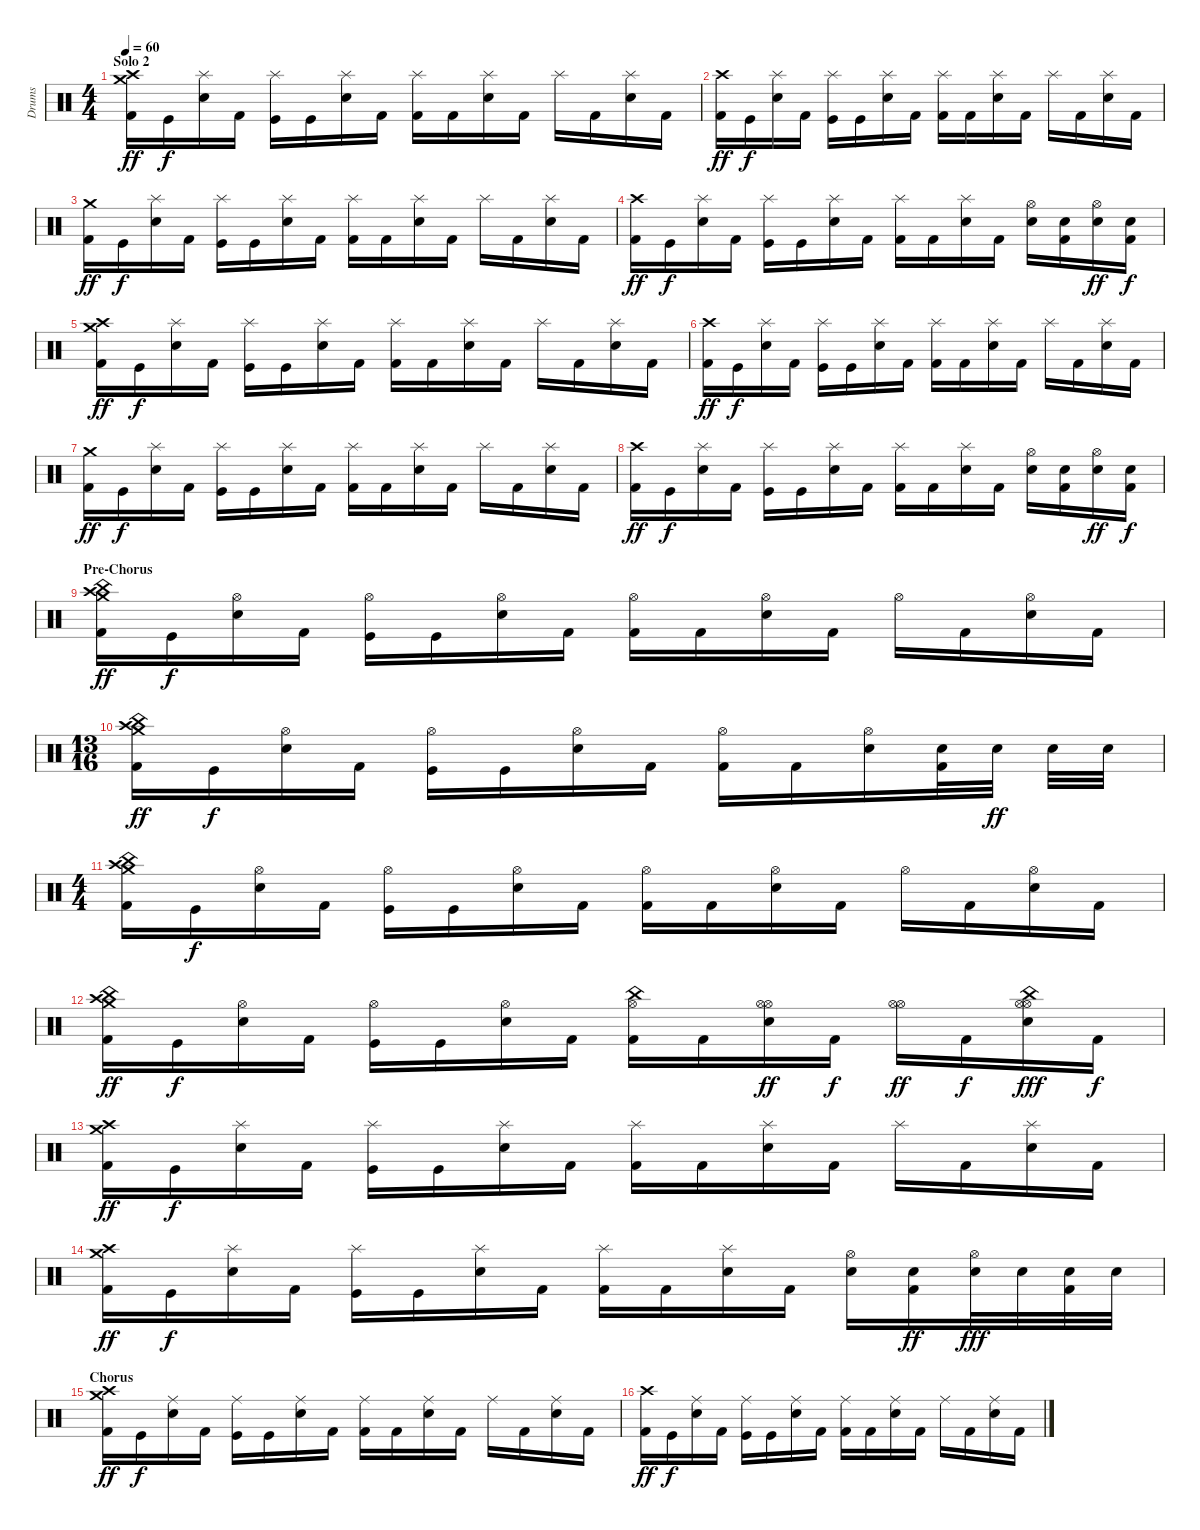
\track ("Drums" "Drums") {instrument percussion}
\staff {score}
\articulation defaults
\ts (4 4)
\section ("" "Solo 2")
\tempo 60
\clef neutral
\ks c
("Crash medium (hit)" "Crash high (hit)" "Kick (hit) 2").16{dy ff volume 16} "Kick (hit)".16{dy f} ("Splash (hit)" "Snare (hit) 2").16 "Kick (hit) 2".16 ("Splash (hit)" "Kick (hit)").16 "Kick (hit)".16 ("Splash (hit)" "Snare (hit) 2").16 "Kick (hit) 2".16 ("Splash (hit)" "Kick (hit) 2").16 "Kick (hit) 2".16 ("Splash (hit)" "Snare (hit) 2").16 "Kick (hit) 2".16 "Splash (hit)".16 "Kick (hit) 2".16 ("Splash (hit)" "Snare (hit) 2").16 "Kick (hit) 2".16 |
("Crash high (hit)" "Kick (hit) 2").16{dy ff} "Kick (hit)".16{dy f} ("Splash (hit)" "Snare (hit) 2").16 "Kick (hit) 2".16 ("Splash (hit)" "Kick (hit)").16 "Kick (hit)".16 ("Splash (hit)" "Snare (hit) 2").16 "Kick (hit) 2".16 ("Splash (hit)" "Kick (hit) 2").16 "Kick (hit) 2".16 ("Splash (hit)" "Snare (hit) 2").16 "Kick (hit) 2".16 "Splash (hit)".16 "Kick (hit) 2".16 ("Splash (hit)" "Snare (hit) 2").16 "Kick (hit) 2".16 |
("Crash medium (hit)" "Kick (hit) 2").16{dy ff} "Kick (hit)".16{dy f} ("Splash (hit)" "Snare (hit) 2").16 "Kick (hit) 2".16 ("Splash (hit)" "Kick (hit)").16 "Kick (hit)".16 ("Splash (hit)" "Snare (hit) 2").16 "Kick (hit) 2".16 ("Splash (hit)" "Kick (hit) 2").16 "Kick (hit) 2".16 ("Splash (hit)" "Snare (hit) 2").16 "Kick (hit) 2".16 "Splash (hit)".16 "Kick (hit) 2".16 ("Splash (hit)" "Snare (hit) 2").16 "Kick (hit) 2".16 |
("Crash high (hit)" "Kick (hit) 2").16{dy ff} "Kick (hit)".16{dy f} ("Splash (hit)" "Snare (hit) 2").16 "Kick (hit) 2".16 ("Splash (hit)" "Kick (hit)").16 "Kick (hit)".16 ("Splash (hit)" "Snare (hit) 2").16 "Kick (hit) 2".16 ("Splash (hit)" "Kick (hit) 2").16 "Kick (hit) 2".16 ("Splash (hit)" "Snare (hit) 2").16 "Kick (hit) 2".16 ("Hi-Hat (open)" "Snare (hit) 2").16 ("Snare (hit) 2" "Kick (hit) 2").16 ("Hi-Hat (open)" "Snare (hit) 2").16{dy ff} ("Snare (hit) 2" "Kick (hit) 2").16{dy f} |
("Crash medium (hit)" "Crash high (hit)" "Kick (hit) 2").16{dy ff} "Kick (hit)".16{dy f} ("Splash (hit)" "Snare (hit) 2").16 "Kick (hit) 2".16 ("Splash (hit)" "Kick (hit)").16 "Kick (hit)".16 ("Splash (hit)" "Snare (hit) 2").16 "Kick (hit) 2".16 ("Splash (hit)" "Kick (hit) 2").16 "Kick (hit) 2".16 ("Splash (hit)" "Snare (hit) 2").16 "Kick (hit) 2".16 "Splash (hit)".16 "Kick (hit) 2".16 ("Splash (hit)" "Snare (hit) 2").16 "Kick (hit) 2".16 |
("Crash high (hit)" "Kick (hit) 2").16{dy ff} "Kick (hit)".16{dy f} ("Splash (hit)" "Snare (hit) 2").16 "Kick (hit) 2".16 ("Splash (hit)" "Kick (hit)").16 "Kick (hit)".16 ("Splash (hit)" "Snare (hit) 2").16 "Kick (hit) 2".16 ("Splash (hit)" "Kick (hit) 2").16 "Kick (hit) 2".16 ("Splash (hit)" "Snare (hit) 2").16 "Kick (hit) 2".16 "Splash (hit)".16 "Kick (hit) 2".16 ("Splash (hit)" "Snare (hit) 2").16 "Kick (hit) 2".16 |
("Crash medium (hit)" "Kick (hit) 2").16{dy ff} "Kick (hit)".16{dy f} ("Splash (hit)" "Snare (hit) 2").16 "Kick (hit) 2".16 ("Splash (hit)" "Kick (hit)").16 "Kick (hit)".16 ("Splash (hit)" "Snare (hit) 2").16 "Kick (hit) 2".16 ("Splash (hit)" "Kick (hit) 2").16 "Kick (hit) 2".16 ("Splash (hit)" "Snare (hit) 2").16 "Kick (hit) 2".16 "Splash (hit)".16 "Kick (hit) 2".16 ("Splash (hit)" "Snare (hit) 2").16 "Kick (hit) 2".16 |
("Crash high (hit)" "Kick (hit) 2").16{dy ff} "Kick (hit)".16{dy f} ("Splash (hit)" "Snare (hit) 2").16 "Kick (hit) 2".16 ("Splash (hit)" "Kick (hit)").16 "Kick (hit)".16 ("Splash (hit)" "Snare (hit) 2").16 "Kick (hit) 2".16 ("Splash (hit)" "Kick (hit) 2").16 "Kick (hit) 2".16 ("Splash (hit)" "Snare (hit) 2").16 "Kick (hit) 2".16 ("Hi-Hat (open)" "Snare (hit) 2").16 ("Snare (hit) 2" "Kick (hit) 2").16 ("Hi-Hat (open)" "Snare (hit) 2").16{dy ff} ("Snare (hit) 2" "Kick (hit) 2").16{dy f} |
\section ("" "Pre-Chorus")
("Crash medium (hit)" "Crash high (hit)" "China (hit)" "Kick (hit) 2").16{dy ff} "Kick (hit)".16{dy f} ("Hi-Hat (open)" "Snare (hit) 2").16 "Kick (hit) 2".16 ("Hi-Hat (open)" "Kick (hit)").16 "Kick (hit)".16 ("Hi-Hat (open)" "Snare (hit) 2").16 "Kick (hit) 2".16 ("Hi-Hat (open)" "Kick (hit) 2").16 "Kick (hit) 2".16 ("Hi-Hat (open)" "Snare (hit) 2").16 "Kick (hit) 2".16 "Hi-Hat (open)".16 "Kick (hit) 2".16 ("Hi-Hat (open)" "Snare (hit) 2").16 "Kick (hit) 2".16 |
\ts (13 16)
("Crash medium (hit)" "Crash high (hit)" "China (hit)" "Kick (hit) 2").16{dy ff} "Kick (hit)".16{dy f} ("Hi-Hat (open)" "Snare (hit) 2").16 "Kick (hit) 2".16 ("Hi-Hat (open)" "Kick (hit)").16 "Kick (hit)".16 ("Hi-Hat (open)" "Snare (hit) 2").16 "Kick (hit) 2".16 ("Hi-Hat (open)" "Kick (hit) 2").16 "Kick (hit) 2".16 ("Hi-Hat (open)" "Snare (hit) 2").16 ("Snare (hit) 2" "Kick (hit) 2").32 "Snare (hit) 2".32{dy ff} "Snare (hit) 2".32 "Snare (hit) 2".32 |
\ts (4 4)
("Crash medium (hit)" "Crash high (hit)" "China (hit)" "Kick (hit) 2").16 "Kick (hit)".16{dy f} ("Hi-Hat (open)" "Snare (hit) 2").16 "Kick (hit) 2".16 ("Hi-Hat (open)" "Kick (hit)").16 "Kick (hit)".16 ("Hi-Hat (open)" "Snare (hit) 2").16 "Kick (hit) 2".16 ("Hi-Hat (open)" "Kick (hit) 2").16 "Kick (hit) 2".16 ("Hi-Hat (open)" "Snare (hit) 2").16 "Kick (hit) 2".16 "Hi-Hat (open)".16 "Kick (hit) 2".16 ("Hi-Hat (open)" "Snare (hit) 2").16 "Kick (hit) 2".16 |
("Crash medium (hit)" "Crash high (hit)" "China (hit)" "Kick (hit) 2").16{dy ff} "Kick (hit)".16{dy f} ("Hi-Hat (open)" "Snare (hit) 2").16 "Kick (hit) 2".16 ("Hi-Hat (open)" "Kick (hit)").16 "Kick (hit)".16 ("Hi-Hat (open)" "Snare (hit) 2").16 "Kick (hit) 2".16 ("Hi-Hat (open)" "China (hit)" "Kick (hit) 2").16 "Kick (hit) 2".16 ("Hi-Hat (open)" "Hi-Hat (open)" "Snare (hit) 2").16{dy ff} "Kick (hit) 2".16{dy f} ("Hi-Hat (open)" "Hi-Hat (open)").16{dy ff} "Kick (hit) 2".16{dy f} ("Hi-Hat (open)" "Hi-Hat (open)" "China (hit)" "Snare (hit) 2").16{dy fff} "Kick (hit) 2".16{dy f} |
("Crash medium (hit)" "Crash high (hit)" "Kick (hit) 2").16{dy ff} "Kick (hit)".16{dy f} ("Splash (hit)" "Snare (hit) 2").16 "Kick (hit) 2".16 ("Splash (hit)" "Kick (hit)").16 "Kick (hit)".16 ("Splash (hit)" "Snare (hit) 2").16 "Kick (hit) 2".16 ("Splash (hit)" "Kick (hit) 2").16 "Kick (hit) 2".16 ("Splash (hit)" "Snare (hit) 2").16 "Kick (hit) 2".16 "Splash (hit)".16 "Kick (hit) 2".16 ("Splash (hit)" "Snare (hit) 2").16 "Kick (hit) 2".16 |
("Crash medium (hit)" "Crash high (hit)" "Kick (hit) 2").16{dy ff} "Kick (hit)".16{dy f} ("Splash (hit)" "Snare (hit) 2").16 "Kick (hit) 2".16 ("Splash (hit)" "Kick (hit)").16 "Kick (hit)".16 ("Splash (hit)" "Snare (hit) 2").16 "Kick (hit) 2".16 ("Splash (hit)" "Kick (hit) 2").16 "Kick (hit) 2".16 ("Splash (hit)" "Snare (hit) 2").16 "Kick (hit) 2".16 ("Hi-Hat (open)" "Snare (hit) 2").16 ("Snare (hit) 2" "Kick (hit) 2").16{dy ff} ("Hi-Hat (open)" "Snare (hit) 2").32{dy fff} "Snare (hit) 2".32 ("Snare (hit) 2" "Kick (hit) 2").32 "Snare (hit) 2".32 |
\section ("" "Chorus")
("Crash medium (hit)" "Crash high (hit)" "Kick (hit) 2").16{dy ff} "Kick (hit)".16{dy f} ("Ride (middle)" "Snare (hit) 2").16 "Kick (hit) 2".16 ("Ride (middle)" "Kick (hit)").16 "Kick (hit)".16 ("Ride (middle)" "Snare (hit) 2").16 "Kick (hit) 2".16 ("Ride (middle)" "Kick (hit) 2").16 "Kick (hit) 2".16 ("Ride (middle)" "Snare (hit) 2").16 "Kick (hit) 2".16 "Ride (middle)".16 "Kick (hit) 2".16 ("Ride (middle)" "Snare (hit) 2").16 "Kick (hit) 2".16 |
("Crash high (hit)" "Kick (hit) 2").16{dy ff} "Kick (hit)".16{dy f} ("Ride (middle)" "Snare (hit) 2").16 "Kick (hit) 2".16 ("Ride (middle)" "Kick (hit)").16 "Kick (hit)".16 ("Ride (middle)" "Snare (hit) 2").16 "Kick (hit) 2".16 ("Ride (middle)" "Kick (hit) 2").16 "Kick (hit) 2".16 ("Ride (middle)" "Snare (hit) 2").16 "Kick (hit) 2".16 "Ride (middle)".16 "Kick (hit) 2".16 ("Ride (middle)" "Snare (hit) 2").16 "Kick (hit) 2".16
